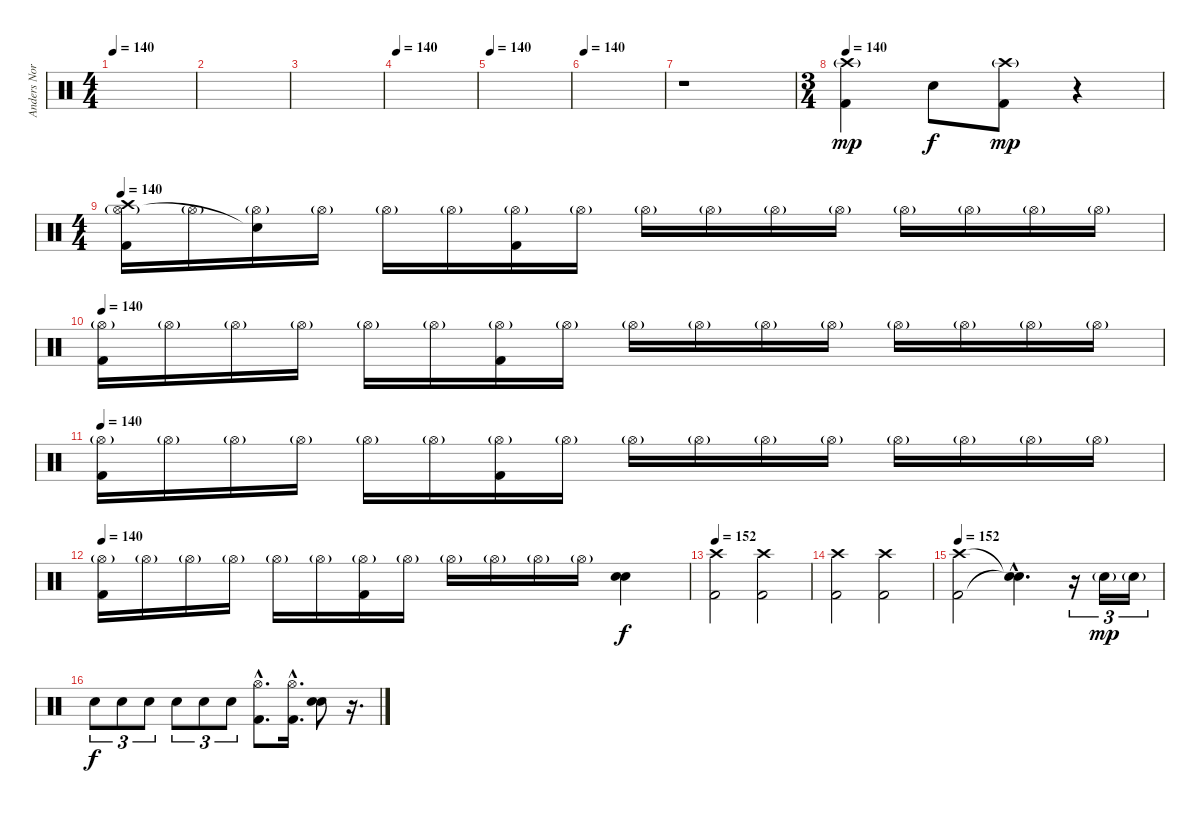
\track ("Anders Nordin" "Anders Nor") {instrument percussion}
\staff {score}
\articulation defaults
\ts (4 4)
\tempo 140
\clef neutral
\ks c
|
|
|
\tempo 140
|
\tempo 140
|
\tempo 140
|
r.1{volume 12} |
\ts (3 4)
\tempo 140
("Kick (hit) 2" "Crash high (hit)"{g}).4{dy mp volume 12} "Electric Snare (hit)".8{dy f} ("Kick (hit) 2" "Crash high (hit)"{g}).8{dy mp} r.4 |
\ts (4 4)
\tempo 140
("Kick (hit) 2" "Hi-Hat (open)"{g} "Crash high (hit)").16 "Hi-Hat (open)"{g}.16 ("Hi-Hat (open)"{g} "Snare (hit)"{t}).16 "Hi-Hat (open)"{g}.16 "Hi-Hat (open)"{g}.16 "Hi-Hat (open)"{g}.16 ("Kick (hit) 2" "Hi-Hat (open)"{g}).16 "Hi-Hat (open)"{g}.16 "Hi-Hat (open)"{g}.16 "Hi-Hat (open)"{g}.16 "Hi-Hat (open)"{g}.16 "Hi-Hat (open)"{g}.16 "Hi-Hat (open)"{g}.16 "Hi-Hat (open)"{g}.16 "Hi-Hat (open)"{g}.16 "Hi-Hat (open)"{g}.16 |
\tempo 140
("Kick (hit) 2" "Hi-Hat (open)"{g}).16 "Hi-Hat (open)"{g}.16 "Hi-Hat (open)"{g}.16 "Hi-Hat (open)"{g}.16 "Hi-Hat (open)"{g}.16 "Hi-Hat (open)"{g}.16 ("Kick (hit) 2" "Hi-Hat (open)"{g}).16 "Hi-Hat (open)"{g}.16 "Hi-Hat (open)"{g}.16 "Hi-Hat (open)"{g}.16 "Hi-Hat (open)"{g}.16 "Hi-Hat (open)"{g}.16 "Hi-Hat (open)"{g}.16 "Hi-Hat (open)"{g}.16 "Hi-Hat (open)"{g}.16 "Hi-Hat (open)"{g}.16 |
\tempo 140
("Kick (hit) 2" "Hi-Hat (open)"{g}).16 "Hi-Hat (open)"{g}.16 "Hi-Hat (open)"{g}.16 "Hi-Hat (open)"{g}.16 "Hi-Hat (open)"{g}.16 "Hi-Hat (open)"{g}.16 ("Kick (hit) 2" "Hi-Hat (open)"{g}).16 "Hi-Hat (open)"{g}.16 "Hi-Hat (open)"{g}.16 "Hi-Hat (open)"{g}.16 "Hi-Hat (open)"{g}.16 "Hi-Hat (open)"{g}.16 "Hi-Hat (open)"{g}.16 "Hi-Hat (open)"{g}.16 "Hi-Hat (open)"{g}.16 "Hi-Hat (open)"{g}.16 |
\tempo 140
("Kick (hit) 2" "Hi-Hat (open)"{g}).16 "Hi-Hat (open)"{g}.16 "Hi-Hat (open)"{g}.16 "Hi-Hat (open)"{g}.16 "Hi-Hat (open)"{g}.16 "Hi-Hat (open)"{g}.16 ("Kick (hit) 2" "Hi-Hat (open)"{g}).16 "Hi-Hat (open)"{g}.16 "Hi-Hat (open)"{g}.16 "Hi-Hat (open)"{g}.16 "Hi-Hat (open)"{g}.16 "Hi-Hat (open)"{g}.16 ("Electric Snare (hit)" "Electric Snare (hit)").4{dy f} |
\tempo 152
("Kick (hit) 2" "Crash high (hit)").2 ("Kick (hit) 2" "Crash high (hit)").2 |
("Kick (hit) 2" "Crash high (hit)").2 ("Kick (hit) 2" "Crash high (hit)").2 |
\tempo 152
("Kick (hit) 2" "Crash high (hit)").2 ("Snare (hit)"{hac t} "Snare (hit)"{hac t}).4{d} r.16{tu (3 2)} "Electric Snare (hit)"{g}.16{tu (3 2) dy mp} "Electric Snare (hit)"{g}.16{tu (3 2)} |
"Electric Snare (hit)".8{tu (3 2) dy f} "Electric Snare (hit)".8{tu (3 2)} "Electric Snare (hit)".8{tu (3 2)} "Electric Snare (hit)".8{tu (3 2)} "Electric Snare (hit)".8{tu (3 2)} "Electric Snare (hit)".8{tu (3 2)} ("Kick (hit) 2"{hac} "Hi-Hat (open)"{hac}).8{d} ("Kick (hit) 2"{hac} "Hi-Hat (open)"{hac}).16{d} ("Electric Snare (hit)" "Electric Snare (hit)").8 r.16{d}
